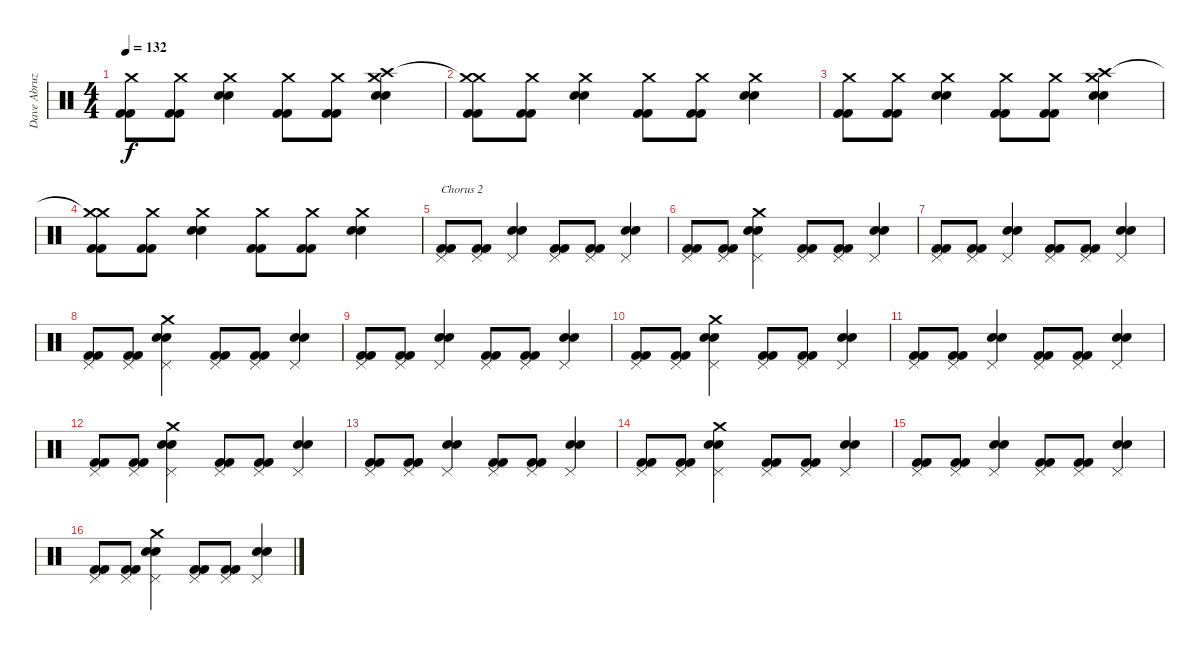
\track ("Dave Abruzzesse" "Dave Abruz") {instrument percussion}
\staff {score}
\articulation defaults
\ts (4 4)
\tempo 132
\clef neutral
\ks c
("Crash medium (hit)" "Kick (hit) 2" "Kick (hit) 2").8{dy f} ("Crash medium (hit)" "Kick (hit) 2" "Kick (hit) 2").8 ("Crash medium (hit)" "Snare (hit) 2" "Snare (hit) 2").4 ("Crash medium (hit)" "Kick (hit) 2" "Kick (hit) 2").8 ("Crash medium (hit)" "Kick (hit) 2" "Kick (hit) 2").8 ("Crash high (hit)" "Crash medium (hit)" "Snare (hit) 2" "Snare (hit) 2").4 |
("Crash medium (hit)"{t} "Crash medium (hit)" "Kick (hit) 2" "Kick (hit) 2").8 ("Crash medium (hit)" "Kick (hit) 2" "Kick (hit) 2").8 ("Crash medium (hit)" "Snare (hit) 2" "Snare (hit) 2").4 ("Crash medium (hit)" "Kick (hit) 2" "Kick (hit) 2").8 ("Crash medium (hit)" "Kick (hit) 2" "Kick (hit) 2").8 ("Crash medium (hit)" "Snare (hit) 2" "Snare (hit) 2").4 |
("Crash medium (hit)" "Kick (hit) 2" "Kick (hit) 2").8 ("Crash medium (hit)" "Kick (hit) 2" "Kick (hit) 2").8 ("Crash medium (hit)" "Snare (hit) 2" "Snare (hit) 2").4 ("Crash medium (hit)" "Kick (hit) 2" "Kick (hit) 2").8 ("Crash medium (hit)" "Kick (hit) 2" "Kick (hit) 2").8 ("Crash high (hit)" "Crash medium (hit)" "Snare (hit) 2" "Snare (hit) 2").4 |
("Crash medium (hit)"{t} "Crash medium (hit)" "Kick (hit) 2" "Kick (hit) 2").8 ("Crash medium (hit)" "Kick (hit) 2" "Kick (hit) 2").8 ("Crash medium (hit)" "Snare (hit) 2" "Snare (hit) 2").4 ("Crash medium (hit)" "Kick (hit) 2" "Kick (hit) 2").8 ("Crash medium (hit)" "Kick (hit) 2" "Kick (hit) 2").8 ("Crash medium (hit)" "Snare (hit) 2" "Snare (hit) 2").4 |
("Pedal Hi-Hat (hit)" "Kick (hit) 2" "Kick (hit) 2").8{txt "Chorus 2"} ("Pedal Hi-Hat (hit)" "Kick (hit) 2" "Kick (hit) 2").8 ("Pedal Hi-Hat (hit)" "Snare (hit) 2" "Snare (hit) 2").4 ("Pedal Hi-Hat (hit)" "Kick (hit) 2" "Kick (hit) 2").8 ("Pedal Hi-Hat (hit)" "Kick (hit) 2" "Kick (hit) 2").8 ("Pedal Hi-Hat (hit)" "Snare (hit) 2" "Snare (hit) 2").4 |
("Pedal Hi-Hat (hit)" "Kick (hit) 2" "Kick (hit) 2").8 ("Pedal Hi-Hat (hit)" "Kick (hit) 2" "Kick (hit) 2").8 ("Crash medium (hit)" "Pedal Hi-Hat (hit)" "Snare (hit) 2" "Snare (hit) 2").4 ("Pedal Hi-Hat (hit)" "Kick (hit) 2" "Kick (hit) 2").8 ("Pedal Hi-Hat (hit)" "Kick (hit) 2" "Kick (hit) 2").8 ("Pedal Hi-Hat (hit)" "Snare (hit) 2" "Snare (hit) 2").4 |
("Pedal Hi-Hat (hit)" "Kick (hit) 2" "Kick (hit) 2").8 ("Pedal Hi-Hat (hit)" "Kick (hit) 2" "Kick (hit) 2").8 ("Pedal Hi-Hat (hit)" "Snare (hit) 2" "Snare (hit) 2").4 ("Pedal Hi-Hat (hit)" "Kick (hit) 2" "Kick (hit) 2").8 ("Pedal Hi-Hat (hit)" "Kick (hit) 2" "Kick (hit) 2").8 ("Pedal Hi-Hat (hit)" "Snare (hit) 2" "Snare (hit) 2").4 |
("Pedal Hi-Hat (hit)" "Kick (hit) 2" "Kick (hit) 2").8 ("Pedal Hi-Hat (hit)" "Kick (hit) 2" "Kick (hit) 2").8 ("Crash medium (hit)" "Pedal Hi-Hat (hit)" "Snare (hit) 2" "Snare (hit) 2").4 ("Pedal Hi-Hat (hit)" "Kick (hit) 2" "Kick (hit) 2").8 ("Pedal Hi-Hat (hit)" "Kick (hit) 2" "Kick (hit) 2").8 ("Pedal Hi-Hat (hit)" "Snare (hit) 2" "Snare (hit) 2").4 |
("Pedal Hi-Hat (hit)" "Kick (hit) 2" "Kick (hit) 2").8 ("Pedal Hi-Hat (hit)" "Kick (hit) 2" "Kick (hit) 2").8 ("Pedal Hi-Hat (hit)" "Snare (hit) 2" "Snare (hit) 2").4 ("Pedal Hi-Hat (hit)" "Kick (hit) 2" "Kick (hit) 2").8 ("Pedal Hi-Hat (hit)" "Kick (hit) 2" "Kick (hit) 2").8 ("Pedal Hi-Hat (hit)" "Snare (hit) 2" "Snare (hit) 2").4 |
("Pedal Hi-Hat (hit)" "Kick (hit) 2" "Kick (hit) 2").8 ("Pedal Hi-Hat (hit)" "Kick (hit) 2" "Kick (hit) 2").8 ("Crash medium (hit)" "Pedal Hi-Hat (hit)" "Snare (hit) 2" "Snare (hit) 2").4 ("Pedal Hi-Hat (hit)" "Kick (hit) 2" "Kick (hit) 2").8 ("Pedal Hi-Hat (hit)" "Kick (hit) 2" "Kick (hit) 2").8 ("Pedal Hi-Hat (hit)" "Snare (hit) 2" "Snare (hit) 2").4 |
("Pedal Hi-Hat (hit)" "Kick (hit) 2" "Kick (hit) 2").8 ("Pedal Hi-Hat (hit)" "Kick (hit) 2" "Kick (hit) 2").8 ("Pedal Hi-Hat (hit)" "Snare (hit) 2" "Snare (hit) 2").4 ("Pedal Hi-Hat (hit)" "Kick (hit) 2" "Kick (hit) 2").8 ("Pedal Hi-Hat (hit)" "Kick (hit) 2" "Kick (hit) 2").8 ("Pedal Hi-Hat (hit)" "Snare (hit) 2" "Snare (hit) 2").4 |
("Pedal Hi-Hat (hit)" "Kick (hit) 2" "Kick (hit) 2").8 ("Pedal Hi-Hat (hit)" "Kick (hit) 2" "Kick (hit) 2").8 ("Crash medium (hit)" "Pedal Hi-Hat (hit)" "Snare (hit) 2" "Snare (hit) 2").4 ("Pedal Hi-Hat (hit)" "Kick (hit) 2" "Kick (hit) 2").8 ("Pedal Hi-Hat (hit)" "Kick (hit) 2" "Kick (hit) 2").8 ("Pedal Hi-Hat (hit)" "Snare (hit) 2" "Snare (hit) 2").4 |
("Pedal Hi-Hat (hit)" "Kick (hit) 2" "Kick (hit) 2").8 ("Pedal Hi-Hat (hit)" "Kick (hit) 2" "Kick (hit) 2").8 ("Pedal Hi-Hat (hit)" "Snare (hit) 2" "Snare (hit) 2").4 ("Pedal Hi-Hat (hit)" "Kick (hit) 2" "Kick (hit) 2").8 ("Pedal Hi-Hat (hit)" "Kick (hit) 2" "Kick (hit) 2").8 ("Pedal Hi-Hat (hit)" "Snare (hit) 2" "Snare (hit) 2").4 |
("Pedal Hi-Hat (hit)" "Kick (hit) 2" "Kick (hit) 2").8 ("Pedal Hi-Hat (hit)" "Kick (hit) 2" "Kick (hit) 2").8 ("Crash medium (hit)" "Pedal Hi-Hat (hit)" "Snare (hit) 2" "Snare (hit) 2").4 ("Pedal Hi-Hat (hit)" "Kick (hit) 2" "Kick (hit) 2").8 ("Pedal Hi-Hat (hit)" "Kick (hit) 2" "Kick (hit) 2").8 ("Pedal Hi-Hat (hit)" "Snare (hit) 2" "Snare (hit) 2").4 |
("Pedal Hi-Hat (hit)" "Kick (hit) 2" "Kick (hit) 2").8 ("Pedal Hi-Hat (hit)" "Kick (hit) 2" "Kick (hit) 2").8 ("Pedal Hi-Hat (hit)" "Snare (hit) 2" "Snare (hit) 2").4 ("Pedal Hi-Hat (hit)" "Kick (hit) 2" "Kick (hit) 2").8 ("Pedal Hi-Hat (hit)" "Kick (hit) 2" "Kick (hit) 2").8 ("Pedal Hi-Hat (hit)" "Snare (hit) 2" "Snare (hit) 2").4 |
("Pedal Hi-Hat (hit)" "Kick (hit) 2" "Kick (hit) 2").8 ("Pedal Hi-Hat (hit)" "Kick (hit) 2" "Kick (hit) 2").8 ("Crash medium (hit)" "Pedal Hi-Hat (hit)" "Snare (hit) 2" "Snare (hit) 2").4 ("Pedal Hi-Hat (hit)" "Kick (hit) 2" "Kick (hit) 2").8 ("Pedal Hi-Hat (hit)" "Kick (hit) 2" "Kick (hit) 2").8 ("Pedal Hi-Hat (hit)" "Snare (hit) 2" "Snare (hit) 2").4
